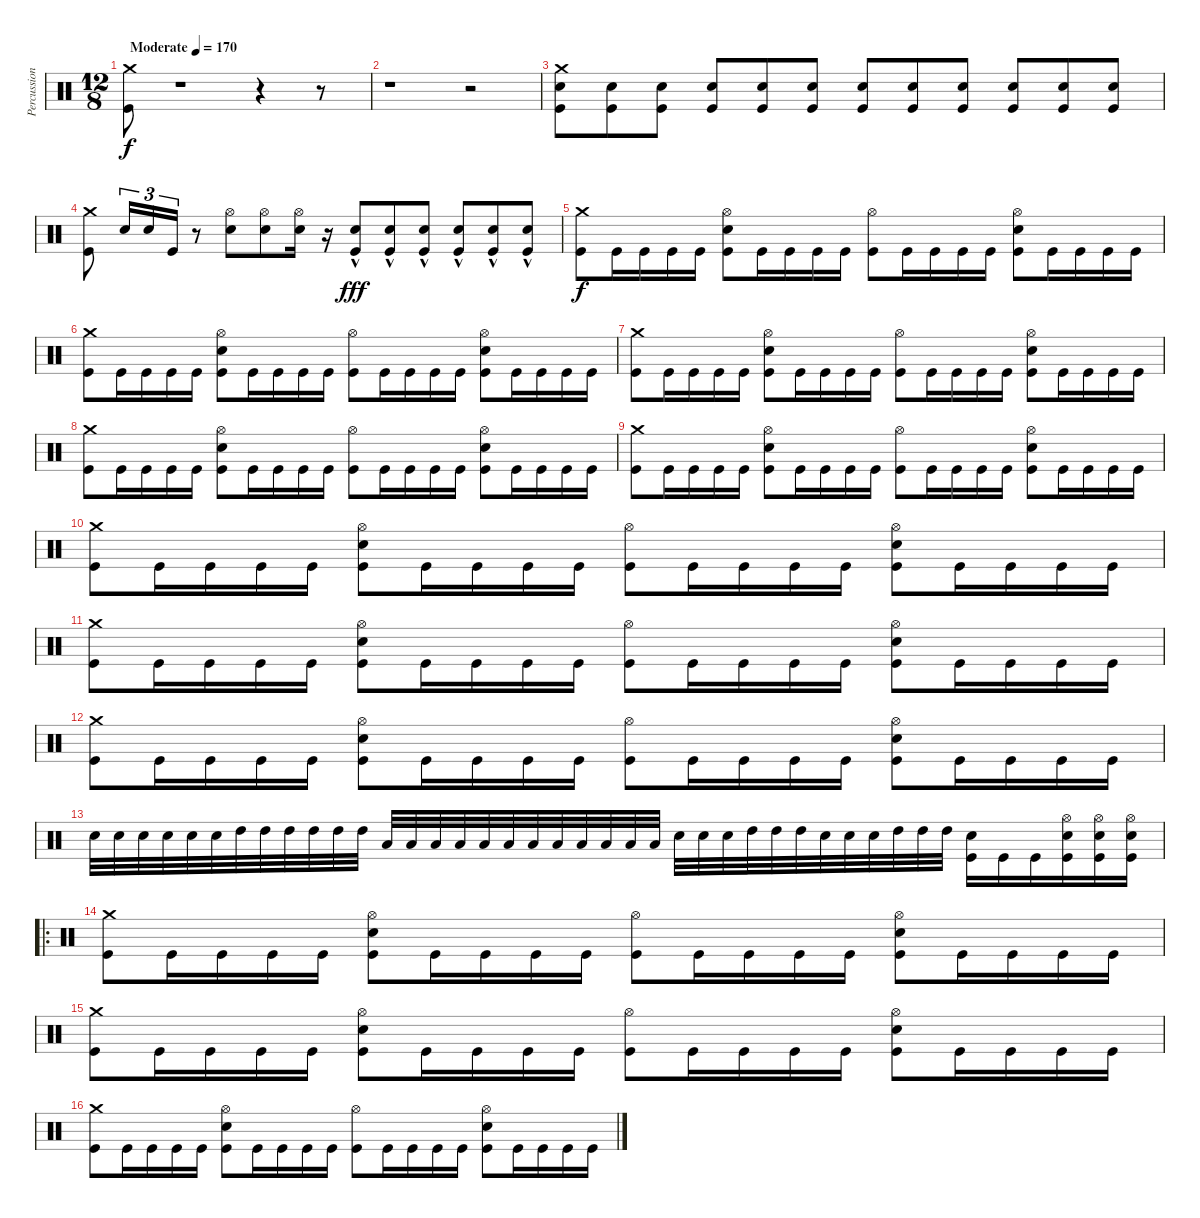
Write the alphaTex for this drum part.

\track ("Percussion" "Percussion") {instrument percussion}
\staff {score}
\articulation defaults
\ts (12 8)
\tempo (170 "Moderate")
\clef neutral
\ks c
("Crash medium (hit)" "Kick (hit)").8{dy f} r.1{volume 0} r.4 r.8 |
r.1 r.2 |
("Crash medium (hit)" "Snare (hit) 2" "Kick (hit)").8{volume 13} ("Snare (hit) 2" "Kick (hit)").8 ("Snare (hit) 2" "Kick (hit)").8 ("Snare (hit) 2" "Kick (hit)").8 ("Snare (hit) 2" "Kick (hit)").8 ("Snare (hit) 2" "Kick (hit)").8 ("Snare (hit) 2" "Kick (hit)").8 ("Snare (hit) 2" "Kick (hit)").8 ("Snare (hit) 2" "Kick (hit)").8 ("Snare (hit) 2" "Kick (hit)").8 ("Snare (hit) 2" "Kick (hit)").8 ("Snare (hit) 2" "Kick (hit)").8 |
("Crash medium (hit)" "Kick (hit)").8 "Snare (hit) 2".16{tu (3 2)} "Snare (hit) 2".16{tu (3 2)} "Kick (hit)".16{tu (3 2)} r.8 ("Hi-Hat (open)" "Snare (hit) 2").8 ("Hi-Hat (open)" "Snare (hit) 2").8 ("Hi-Hat (open)" "Snare (hit) 2").16 r.16{volume 8} ("Snare (hit) 2"{hac} "Kick (hit)"{hac}).8{dy fff volume 16} ("Snare (hit) 2"{hac} "Kick (hit)"{hac}).8 ("Snare (hit) 2"{hac} "Kick (hit)"{hac}).8 ("Snare (hit) 2"{hac} "Kick (hit)"{hac}).8 ("Snare (hit) 2"{hac} "Kick (hit)"{hac}).8 ("Snare (hit) 2"{hac} "Kick (hit)"{hac}).8 |
("Crash medium (hit)" "Kick (hit)").8{dy f} "Kick (hit)".16 "Kick (hit)".16 "Kick (hit)".16 "Kick (hit)".16 ("Hi-Hat (open)" "Snare (hit) 2" "Kick (hit)").8 "Kick (hit)".16 "Kick (hit)".16 "Kick (hit)".16 "Kick (hit)".16 ("Hi-Hat (open)" "Kick (hit)").8 "Kick (hit)".16 "Kick (hit)".16 "Kick (hit)".16 "Kick (hit)".16 ("Hi-Hat (open)" "Snare (hit) 2" "Kick (hit)").8 "Kick (hit)".16 "Kick (hit)".16 "Kick (hit)".16 "Kick (hit)".16 |
("Crash medium (hit)" "Kick (hit)").8 "Kick (hit)".16 "Kick (hit)".16 "Kick (hit)".16 "Kick (hit)".16 ("Hi-Hat (open)" "Snare (hit) 2" "Kick (hit)").8 "Kick (hit)".16 "Kick (hit)".16 "Kick (hit)".16 "Kick (hit)".16 ("Hi-Hat (open)" "Kick (hit)").8 "Kick (hit)".16 "Kick (hit)".16 "Kick (hit)".16 "Kick (hit)".16 ("Hi-Hat (open)" "Snare (hit) 2" "Kick (hit)").8 "Kick (hit)".16 "Kick (hit)".16 "Kick (hit)".16 "Kick (hit)".16 |
("Crash medium (hit)" "Kick (hit)").8 "Kick (hit)".16 "Kick (hit)".16 "Kick (hit)".16 "Kick (hit)".16 ("Hi-Hat (open)" "Snare (hit) 2" "Kick (hit)").8 "Kick (hit)".16 "Kick (hit)".16 "Kick (hit)".16 "Kick (hit)".16 ("Hi-Hat (open)" "Kick (hit)").8 "Kick (hit)".16 "Kick (hit)".16 "Kick (hit)".16 "Kick (hit)".16 ("Hi-Hat (open)" "Snare (hit) 2" "Kick (hit)").8 "Kick (hit)".16 "Kick (hit)".16 "Kick (hit)".16 "Kick (hit)".16 |
("Crash medium (hit)" "Kick (hit)").8 "Kick (hit)".16 "Kick (hit)".16 "Kick (hit)".16 "Kick (hit)".16 ("Hi-Hat (open)" "Snare (hit) 2" "Kick (hit)").8 "Kick (hit)".16 "Kick (hit)".16 "Kick (hit)".16 "Kick (hit)".16 ("Hi-Hat (open)" "Kick (hit)").8 "Kick (hit)".16 "Kick (hit)".16 "Kick (hit)".16 "Kick (hit)".16 ("Hi-Hat (open)" "Snare (hit) 2" "Kick (hit)").8 "Kick (hit)".16 "Kick (hit)".16 "Kick (hit)".16 "Kick (hit)".16 |
("Crash medium (hit)" "Kick (hit)").8 "Kick (hit)".16 "Kick (hit)".16 "Kick (hit)".16 "Kick (hit)".16 ("Hi-Hat (open)" "Snare (hit) 2" "Kick (hit)").8 "Kick (hit)".16 "Kick (hit)".16 "Kick (hit)".16 "Kick (hit)".16 ("Hi-Hat (open)" "Kick (hit)").8 "Kick (hit)".16 "Kick (hit)".16 "Kick (hit)".16 "Kick (hit)".16 ("Hi-Hat (open)" "Snare (hit) 2" "Kick (hit)").8 "Kick (hit)".16 "Kick (hit)".16 "Kick (hit)".16 "Kick (hit)".16 |
("Crash medium (hit)" "Kick (hit)").8 "Kick (hit)".16 "Kick (hit)".16 "Kick (hit)".16 "Kick (hit)".16 ("Hi-Hat (open)" "Snare (hit) 2" "Kick (hit)").8 "Kick (hit)".16 "Kick (hit)".16 "Kick (hit)".16 "Kick (hit)".16 ("Hi-Hat (open)" "Kick (hit)").8 "Kick (hit)".16 "Kick (hit)".16 "Kick (hit)".16 "Kick (hit)".16 ("Hi-Hat (open)" "Snare (hit) 2" "Kick (hit)").8 "Kick (hit)".16 "Kick (hit)".16 "Kick (hit)".16 "Kick (hit)".16 |
("Crash medium (hit)" "Kick (hit)").8 "Kick (hit)".16 "Kick (hit)".16 "Kick (hit)".16 "Kick (hit)".16 ("Hi-Hat (open)" "Snare (hit) 2" "Kick (hit)").8 "Kick (hit)".16 "Kick (hit)".16 "Kick (hit)".16 "Kick (hit)".16 ("Hi-Hat (open)" "Kick (hit)").8 "Kick (hit)".16 "Kick (hit)".16 "Kick (hit)".16 "Kick (hit)".16 ("Hi-Hat (open)" "Snare (hit) 2" "Kick (hit)").8 "Kick (hit)".16 "Kick (hit)".16 "Kick (hit)".16 "Kick (hit)".16 |
("Crash medium (hit)" "Kick (hit)").8 "Kick (hit)".16 "Kick (hit)".16 "Kick (hit)".16 "Kick (hit)".16 ("Hi-Hat (open)" "Snare (hit) 2" "Kick (hit)").8 "Kick (hit)".16 "Kick (hit)".16 "Kick (hit)".16 "Kick (hit)".16 ("Hi-Hat (open)" "Kick (hit)").8 "Kick (hit)".16 "Kick (hit)".16 "Kick (hit)".16 "Kick (hit)".16 ("Hi-Hat (open)" "Snare (hit) 2" "Kick (hit)").8 "Kick (hit)".16 "Kick (hit)".16 "Kick (hit)".16 "Kick (hit)".16 |
"Snare (hit) 2".32 "Snare (hit) 2".32 "Snare (hit) 2".32 "Snare (hit) 2".32 "Snare (hit) 2".32 "Snare (hit) 2".32 "High Tom (hit)".32 "High Tom (hit)".32 "High Tom (hit)".32 "High Tom (hit)".32 "High Tom (hit)".32 "High Tom (hit)".32 "Low Tom (hit)".32 "Low Tom (hit)".32 "Low Tom (hit)".32 "Low Tom (hit)".32 "Low Tom (hit)".32 "Low Tom (hit)".32 "Low Floor Tom (hit)".32 "Low Floor Tom (hit)".32 "Low Floor Tom (hit)".32 "Low Floor Tom (hit)".32 "Low Floor Tom (hit)".32 "Low Floor Tom (hit)".32 "Snare (hit) 2".32 "Snare (hit) 2".32 "Snare (hit) 2".32 "High Tom (hit)".32 "High Tom (hit)".32 "High Tom (hit)".32 "Snare (hit) 2".32 "Snare (hit) 2".32 "Snare (hit) 2".32 "High Tom (hit)".32 "High Tom (hit)".32 "High Tom (hit)".32 ("Snare (hit) 2" "Kick (hit)").16 "Kick (hit)".16 "Kick (hit)".16 ("Hi-Hat (open)" "Snare (hit) 2" "Kick (hit)").16 ("Hi-Hat (open)" "Snare (hit) 2" "Kick (hit)").16 ("Hi-Hat (open)" "Snare (hit) 2" "Kick (hit)").16 |
\ro
("Crash medium (hit)" "Kick (hit)").8 "Kick (hit)".16 "Kick (hit)".16 "Kick (hit)".16 "Kick (hit)".16 ("Hi-Hat (open)" "Snare (hit) 2" "Kick (hit)").8 "Kick (hit)".16 "Kick (hit)".16 "Kick (hit)".16 "Kick (hit)".16 ("Hi-Hat (open)" "Kick (hit)").8 "Kick (hit)".16 "Kick (hit)".16 "Kick (hit)".16 "Kick (hit)".16 ("Hi-Hat (open)" "Snare (hit) 2" "Kick (hit)").8 "Kick (hit)".16 "Kick (hit)".16 "Kick (hit)".16 "Kick (hit)".16 |
("Crash medium (hit)" "Kick (hit)").8 "Kick (hit)".16 "Kick (hit)".16 "Kick (hit)".16 "Kick (hit)".16 ("Hi-Hat (open)" "Snare (hit) 2" "Kick (hit)").8 "Kick (hit)".16 "Kick (hit)".16 "Kick (hit)".16 "Kick (hit)".16 ("Hi-Hat (open)" "Kick (hit)").8 "Kick (hit)".16 "Kick (hit)".16 "Kick (hit)".16 "Kick (hit)".16 ("Hi-Hat (open)" "Snare (hit) 2" "Kick (hit)").8 "Kick (hit)".16 "Kick (hit)".16 "Kick (hit)".16 "Kick (hit)".16 |
("Crash medium (hit)" "Kick (hit)").8 "Kick (hit)".16 "Kick (hit)".16 "Kick (hit)".16 "Kick (hit)".16 ("Hi-Hat (open)" "Snare (hit) 2" "Kick (hit)").8 "Kick (hit)".16 "Kick (hit)".16 "Kick (hit)".16 "Kick (hit)".16 ("Hi-Hat (open)" "Kick (hit)").8 "Kick (hit)".16 "Kick (hit)".16 "Kick (hit)".16 "Kick (hit)".16 ("Hi-Hat (open)" "Snare (hit) 2" "Kick (hit)").8 "Kick (hit)".16 "Kick (hit)".16 "Kick (hit)".16 "Kick (hit)".16
